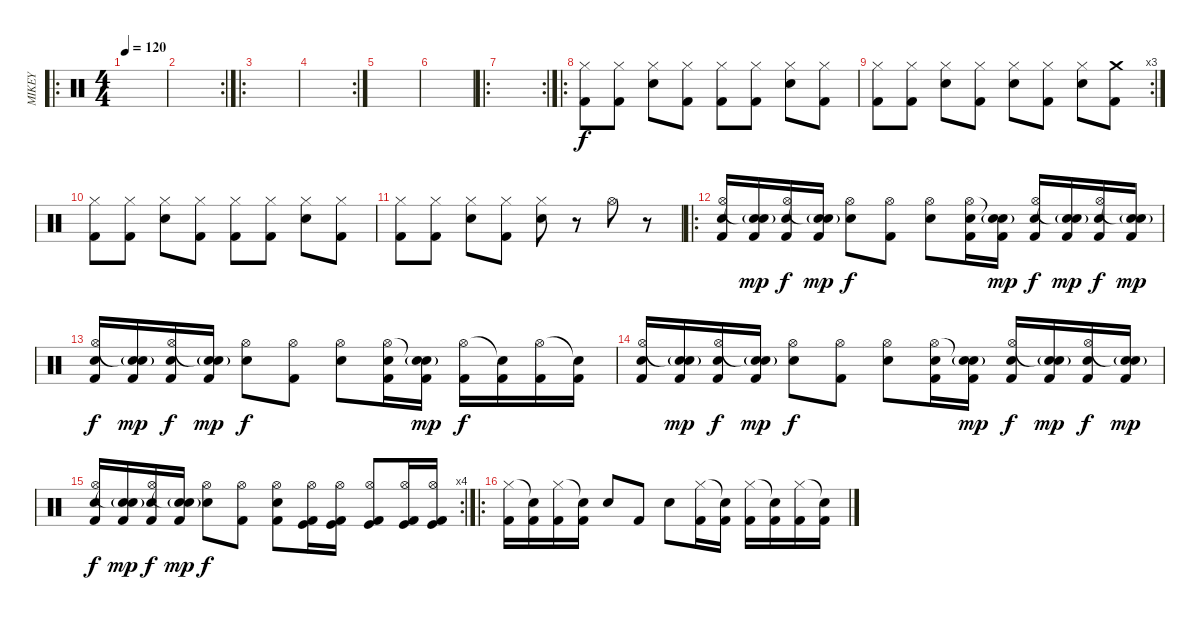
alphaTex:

\track ("MIKEY" "MIKEY") {instrument percussion}
\staff {score}
\articulation defaults
\ro
\ts (4 4)
\tempo 120
\clef neutral
\ks c
|
\rc 2
|
\ro
|
\rc 2
|
|
|
\ro
\rc 2
|
\ro
("Hi-Hat (closed)" "Kick (hit) 2").8 ("Hi-Hat (closed)" "Kick (hit) 2").8 ("Hi-Hat (closed)" "Electric Snare (hit)").8 ("Hi-Hat (closed)" "Kick (hit) 2").8 ("Hi-Hat (closed)" "Kick (hit) 2").8 ("Hi-Hat (closed)" "Kick (hit) 2").8 ("Hi-Hat (closed)" "Electric Snare (hit)").8 ("Hi-Hat (closed)" "Kick (hit) 2").8 |
\rc 3
("Hi-Hat (closed)" "Kick (hit) 2").8 ("Hi-Hat (closed)" "Kick (hit) 2").8 ("Hi-Hat (closed)" "Electric Snare (hit)").8 ("Hi-Hat (closed)" "Kick (hit) 2").8 ("Hi-Hat (closed)" "Electric Snare (hit)").8 ("Hi-Hat (closed)" "Kick (hit) 2").8 ("Hi-Hat (closed)" "Electric Snare (hit)").8 ("Crash medium (hit)" "Kick (hit) 2").8 |
("Hi-Hat (closed)" "Kick (hit) 2").8 ("Hi-Hat (closed)" "Kick (hit) 2").8 ("Hi-Hat (closed)" "Electric Snare (hit)").8 ("Hi-Hat (closed)" "Kick (hit) 2").8 ("Hi-Hat (closed)" "Kick (hit) 2").8 ("Hi-Hat (closed)" "Kick (hit) 2").8 ("Hi-Hat (closed)" "Electric Snare (hit)").8 ("Hi-Hat (closed)" "Kick (hit) 2").8 |
("Hi-Hat (closed)" "Kick (hit) 2").8 ("Hi-Hat (closed)" "Kick (hit) 2").8 ("Hi-Hat (closed)" "Electric Snare (hit)").8 ("Hi-Hat (closed)" "Kick (hit) 2").8 ("Hi-Hat (closed)" "Electric Snare (hit)").8 r.8 "Hi-Hat (open)".8 r.8 |
\ro
("Hi-Hat (open)" "Snare (hit) 2" "Kick (hit) 2").16 ("Snare (hit)"{t} "Snare (hit) 2"{g} "Kick (hit) 2").16{dy mp} ("Hi-Hat (open)" "Snare (hit) 2" "Kick (hit) 2").16{dy f} ("Snare (hit)"{t} "Snare (hit) 2"{g} "Kick (hit) 2").16{dy mp} ("Hi-Hat (open)" "Electric Snare (hit)").8{dy f} ("Hi-Hat (open)" "Kick (hit) 2").8 ("Hi-Hat (open)" "Electric Snare (hit)").8 ("Hi-Hat (open)" "Snare (hit) 2" "Kick (hit) 2").16 ("Snare (hit)"{t} "Snare (hit) 2"{g} "Kick (hit) 2").16{dy mp} ("Hi-Hat (open)" "Snare (hit) 2" "Kick (hit) 2").16{dy f} ("Snare (hit)"{t} "Snare (hit) 2"{g} "Kick (hit) 2").16{dy mp} ("Hi-Hat (open)" "Snare (hit) 2" "Kick (hit) 2").16{dy f} ("Snare (hit)"{t} "Snare (hit) 2"{g} "Kick (hit) 2").16{dy mp} |
("Hi-Hat (open)" "Snare (hit) 2" "Kick (hit) 2").16{dy f} ("Snare (hit)"{t} "Snare (hit) 2"{g} "Kick (hit) 2").16{dy mp} ("Hi-Hat (open)" "Snare (hit) 2" "Kick (hit) 2").16{dy f} ("Snare (hit)"{t} "Snare (hit) 2"{g} "Kick (hit) 2").16{dy mp} ("Hi-Hat (open)" "Electric Snare (hit)").8{dy f} ("Hi-Hat (open)" "Kick (hit) 2").8 ("Hi-Hat (open)" "Electric Snare (hit)").8 ("Hi-Hat (open)" "Snare (hit) 2" "Kick (hit) 2").16 ("Snare (hit)"{t} "Snare (hit) 2"{g} "Kick (hit) 2").16{dy mp} ("Hi-Hat (open)" "Kick (hit) 2").16{dy f} ("Snare (hit)"{t} "Kick (hit) 2").16 ("Hi-Hat (open)" "Kick (hit) 2").16 ("Snare (hit)"{t} "Kick (hit) 2").16 |
("Hi-Hat (open)" "Snare (hit) 2" "Kick (hit) 2").16 ("Snare (hit)"{t} "Snare (hit) 2"{g} "Kick (hit) 2").16{dy mp} ("Hi-Hat (open)" "Snare (hit) 2" "Kick (hit) 2").16{dy f} ("Snare (hit)"{t} "Snare (hit) 2"{g} "Kick (hit) 2").16{dy mp} ("Hi-Hat (open)" "Electric Snare (hit)").8{dy f} ("Hi-Hat (open)" "Kick (hit) 2").8 ("Hi-Hat (open)" "Electric Snare (hit)").8 ("Hi-Hat (open)" "Snare (hit) 2" "Kick (hit) 2").16 ("Snare (hit)"{t} "Snare (hit) 2"{g} "Kick (hit) 2").16{dy mp} ("Hi-Hat (open)" "Snare (hit) 2" "Kick (hit) 2").16{dy f} ("Snare (hit)"{t} "Snare (hit) 2"{g} "Kick (hit) 2").16{dy mp} ("Hi-Hat (open)" "Snare (hit) 2" "Kick (hit) 2").16{dy f} ("Snare (hit)"{t} "Snare (hit) 2"{g} "Kick (hit) 2").16{dy mp} |
\rc 4
("Hi-Hat (open)" "Snare (hit) 2" "Kick (hit) 2").16{dy f} ("Snare (hit)"{t} "Snare (hit) 2"{g} "Kick (hit) 2").16{dy mp} ("Hi-Hat (open)" "Snare (hit) 2" "Kick (hit) 2").16{dy f} ("Snare (hit)"{t} "Snare (hit) 2"{g} "Kick (hit) 2").16{dy mp} ("Hi-Hat (open)" "Electric Snare (hit)").8{dy f} ("Hi-Hat (open)" "Kick (hit) 2").8 ("Kick (hit) 2" "Hi-Hat (open)" "Electric Snare (hit)").8 ("Kick (hit) 2" "Hi-Hat (open)" "Kick (hit)").16 ("Kick (hit) 2" "Hi-Hat (open)" "Kick (hit)").16 ("Kick (hit) 2" "Hi-Hat (open)" "Kick (hit)").8 ("Kick (hit) 2" "Hi-Hat (open)" "Kick (hit)").16 ("Kick (hit) 2" "Hi-Hat (open)" "Kick (hit)").16 |
\ro
("Hi-Hat (closed)" "Kick (hit) 2").16 ("Snare (hit)"{t} "Kick (hit) 2").16 ("Hi-Hat (closed)" "Kick (hit) 2").16 ("Snare (hit)"{t} "Kick (hit) 2").16 "Electric Snare (hit)".8 "Kick (hit) 2".8 "Electric Snare (hit)".8 ("Hi-Hat (closed)" "Kick (hit) 2").16 ("Snare (hit)"{t} "Kick (hit) 2").16 ("Hi-Hat (closed)" "Kick (hit) 2").16 ("Snare (hit)"{t} "Kick (hit) 2").16 ("Hi-Hat (closed)" "Kick (hit) 2").16 ("Snare (hit)"{t} "Kick (hit) 2").16
